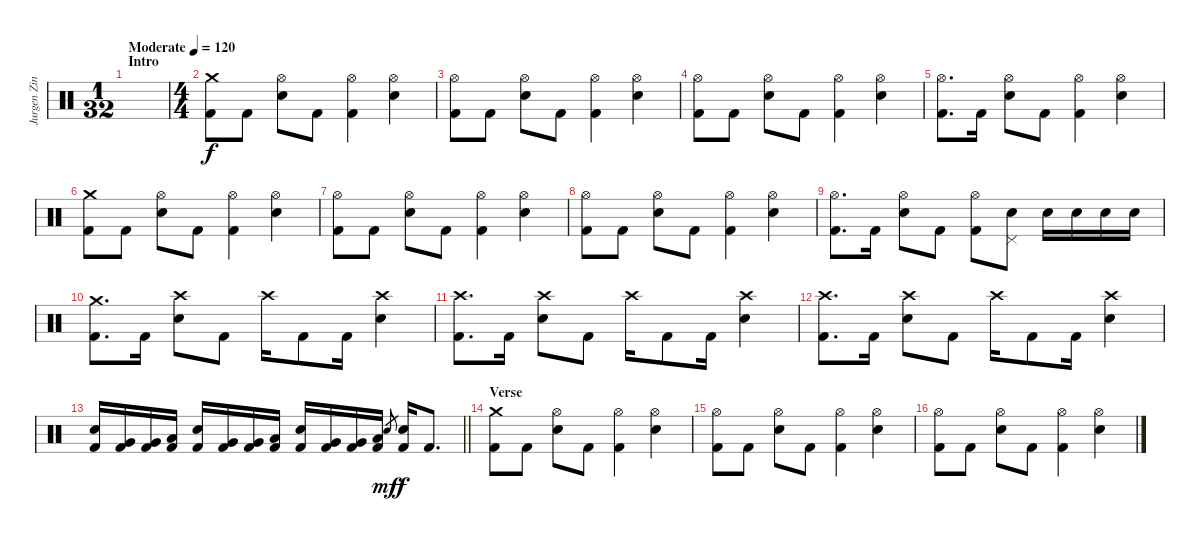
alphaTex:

\track ("Jurgen Zing" "Jurgen Zin") {instrument percussion}
\staff {score}
\articulation defaults
\ts (1 32)
\section ("" "Intro")
\tempo (120 "Moderate")
\clef neutral
\ks c
|
\ts (4 4)
("Crash medium (hit)" "Kick (hit) 2").8 "Kick (hit) 2".8 ("Hi-Hat (open)" "Electric Snare (hit)").8 "Kick (hit) 2".8 ("Hi-Hat (open)" "Kick (hit) 2").4 ("Hi-Hat (open)" "Electric Snare (hit)").4 |
("Hi-Hat (open)" "Kick (hit) 2").8 "Kick (hit) 2".8 ("Hi-Hat (open)" "Electric Snare (hit)").8 "Kick (hit) 2".8 ("Hi-Hat (open)" "Kick (hit) 2").4 ("Hi-Hat (open)" "Electric Snare (hit)").4 |
("Hi-Hat (open)" "Kick (hit) 2").8 "Kick (hit) 2".8 ("Hi-Hat (open)" "Electric Snare (hit)").8 "Kick (hit) 2".8 ("Hi-Hat (open)" "Kick (hit) 2").4 ("Hi-Hat (open)" "Electric Snare (hit)").4 |
("Hi-Hat (open)" "Kick (hit) 2").8{d} "Kick (hit) 2".16 ("Hi-Hat (open)" "Electric Snare (hit)").8 "Kick (hit) 2".8 ("Hi-Hat (open)" "Kick (hit) 2").4 ("Hi-Hat (open)" "Electric Snare (hit)").4 |
("Crash medium (hit)" "Kick (hit) 2").8 "Kick (hit) 2".8 ("Hi-Hat (open)" "Electric Snare (hit)").8 "Kick (hit) 2".8 ("Hi-Hat (open)" "Kick (hit) 2").4 ("Hi-Hat (open)" "Electric Snare (hit)").4 |
("Hi-Hat (open)" "Kick (hit) 2").8 "Kick (hit) 2".8 ("Hi-Hat (open)" "Electric Snare (hit)").8 "Kick (hit) 2".8 ("Hi-Hat (open)" "Kick (hit) 2").4 ("Hi-Hat (open)" "Electric Snare (hit)").4 |
("Hi-Hat (open)" "Kick (hit) 2").8 "Kick (hit) 2".8 ("Hi-Hat (open)" "Electric Snare (hit)").8 "Kick (hit) 2".8 ("Hi-Hat (open)" "Kick (hit) 2").4 ("Hi-Hat (open)" "Electric Snare (hit)").4 |
("Hi-Hat (open)" "Kick (hit) 2").8{d} "Kick (hit) 2".16 ("Hi-Hat (open)" "Electric Snare (hit)").8 "Kick (hit) 2".8 ("Hi-Hat (open)" "Kick (hit) 2").8 ("Pedal Hi-Hat (hit)" "Electric Snare (hit)").8 "Electric Snare (hit)".16 "Electric Snare (hit)".16 "Electric Snare (hit)".16 "Electric Snare (hit)".16 |
("Crash medium (hit)" "Kick (hit) 2").8{d} "Kick (hit) 2".16 ("Crash high (hit)" "Electric Snare (hit)").8 "Kick (hit) 2".8 "Crash high (hit)".16 "Kick (hit) 2".8 "Kick (hit) 2".16 ("Crash high (hit)" "Electric Snare (hit)").4 |
("Crash high (hit)" "Kick (hit) 2").8{d} "Kick (hit) 2".16 ("Crash high (hit)" "Electric Snare (hit)").8 "Kick (hit) 2".8 "Crash high (hit)".16 "Kick (hit) 2".8 "Kick (hit) 2".16 ("Crash high (hit)" "Electric Snare (hit)").4 |
("Crash high (hit)" "Kick (hit) 2").8{d} "Kick (hit) 2".16 ("Crash high (hit)" "Electric Snare (hit)").8 "Kick (hit) 2".8 "Crash high (hit)".16 "Kick (hit) 2".8 "Kick (hit) 2".16 ("Crash high (hit)" "Electric Snare (hit)").4 |
\barLineRight lightlight
("Electric Snare (hit)" "Kick (hit) 2").16 ("Very Low Tom (hit)" "Kick (hit) 2").16 ("Very Low Tom (hit)" "Kick (hit) 2").16 ("Low Floor Tom (hit)" "Kick (hit) 2").16 ("Electric Snare (hit)" "Kick (hit) 2").16 ("Very Low Tom (hit)" "Kick (hit) 2").16 ("Very Low Tom (hit)" "Kick (hit) 2").16 ("Low Floor Tom (hit)" "Kick (hit) 2").16 ("Electric Snare (hit)" "Kick (hit) 2").16 ("Very Low Tom (hit)" "Kick (hit) 2").16 ("Very Low Tom (hit)" "Kick (hit) 2").16 ("Low Floor Tom (hit)" "Kick (hit) 2").16 "Electric Snare (hit)".8{gr dy mf} ("Electric Snare (hit)" "Kick (hit) 2").16{dy f} "Kick (hit) 2".8{d} |
\section ("" "Verse")
("Crash medium (hit)" "Kick (hit) 2").8 "Kick (hit) 2".8 ("Hi-Hat (open)" "Electric Snare (hit)").8 "Kick (hit) 2".8 ("Hi-Hat (open)" "Kick (hit) 2").4 ("Hi-Hat (open)" "Electric Snare (hit)").4 |
("Hi-Hat (open)" "Kick (hit) 2").8 "Kick (hit) 2".8 ("Hi-Hat (open)" "Electric Snare (hit)").8 "Kick (hit) 2".8 ("Hi-Hat (open)" "Kick (hit) 2").4 ("Hi-Hat (open)" "Electric Snare (hit)").4 |
("Hi-Hat (open)" "Kick (hit) 2").8 "Kick (hit) 2".8 ("Hi-Hat (open)" "Electric Snare (hit)").8 "Kick (hit) 2".8 ("Hi-Hat (open)" "Kick (hit) 2").4 ("Hi-Hat (open)" "Electric Snare (hit)").4
